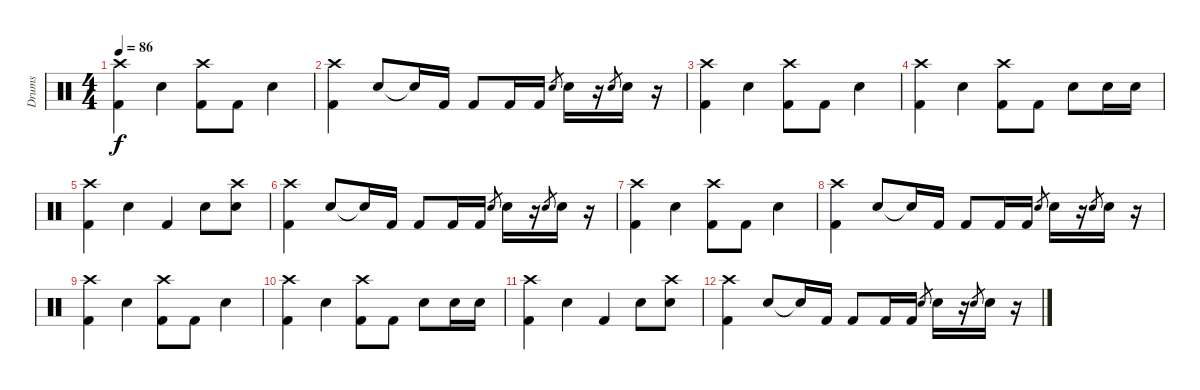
\track ("Drums" "Drums") {instrument percussion}
\staff {score}
\articulation defaults
\ts (4 4)
\tempo 86
\clef neutral
\ks c
("Crash high (hit)" "Kick (hit) 2").4{dy f} "Electric Snare (hit)".4 ("Crash high (hit)" "Kick (hit) 2").8 "Kick (hit) 2".8 "Electric Snare (hit)".4 |
("Crash high (hit)" "Kick (hit) 2").4 "Electric Snare (hit)".8 "Snare (hit)"{t}.16 "Kick (hit) 2".16 "Kick (hit) 2".8 "Kick (hit) 2".16 "Kick (hit) 2".16 "Electric Snare (hit)".8{gr} "Electric Snare (hit)".16 r.16 "Electric Snare (hit)".8{gr} "Electric Snare (hit)".16 r.16 |
("Crash high (hit)" "Kick (hit) 2").4 "Electric Snare (hit)".4 ("Crash high (hit)" "Kick (hit) 2").8 "Kick (hit) 2".8 "Electric Snare (hit)".4 |
("Crash high (hit)" "Kick (hit) 2").4 "Electric Snare (hit)".4 ("Crash high (hit)" "Kick (hit) 2").8 "Kick (hit) 2".8 "Electric Snare (hit)".8 "Electric Snare (hit)".16 "Electric Snare (hit)".16 |
("Crash high (hit)" "Kick (hit) 2").4 "Electric Snare (hit)".4 "Kick (hit) 2".4 "Electric Snare (hit)".8 ("Crash high (hit)" "Electric Snare (hit)").8 |
("Crash high (hit)" "Kick (hit) 2").4 "Electric Snare (hit)".8 "Snare (hit)"{t}.16 "Kick (hit) 2".16 "Kick (hit) 2".8 "Kick (hit) 2".16 "Kick (hit) 2".16 "Electric Snare (hit)".8{gr} "Electric Snare (hit)".16 r.16 "Electric Snare (hit)".8{gr} "Electric Snare (hit)".16 r.16 |
("Crash high (hit)" "Kick (hit) 2").4 "Electric Snare (hit)".4 ("Crash high (hit)" "Kick (hit) 2").8 "Kick (hit) 2".8 "Electric Snare (hit)".4 |
("Crash high (hit)" "Kick (hit) 2").4 "Electric Snare (hit)".8 "Snare (hit)"{t}.16 "Kick (hit) 2".16 "Kick (hit) 2".8 "Kick (hit) 2".16 "Kick (hit) 2".16 "Electric Snare (hit)".8{gr} "Electric Snare (hit)".16 r.16 "Electric Snare (hit)".8{gr} "Electric Snare (hit)".16 r.16 |
("Crash high (hit)" "Kick (hit) 2").4 "Electric Snare (hit)".4 ("Crash high (hit)" "Kick (hit) 2").8 "Kick (hit) 2".8 "Electric Snare (hit)".4 |
("Crash high (hit)" "Kick (hit) 2").4 "Electric Snare (hit)".4 ("Crash high (hit)" "Kick (hit) 2").8 "Kick (hit) 2".8 "Electric Snare (hit)".8 "Electric Snare (hit)".16 "Electric Snare (hit)".16 |
("Crash high (hit)" "Kick (hit) 2").4 "Electric Snare (hit)".4 "Kick (hit) 2".4 "Electric Snare (hit)".8 ("Crash high (hit)" "Electric Snare (hit)").8 |
("Crash high (hit)" "Kick (hit) 2").4 "Electric Snare (hit)".8 "Snare (hit)"{t}.16 "Kick (hit) 2".16 "Kick (hit) 2".8 "Kick (hit) 2".16 "Kick (hit) 2".16 "Electric Snare (hit)".8{gr} "Electric Snare (hit)".16 r.16 "Electric Snare (hit)".8{gr} "Electric Snare (hit)".16 r.16
